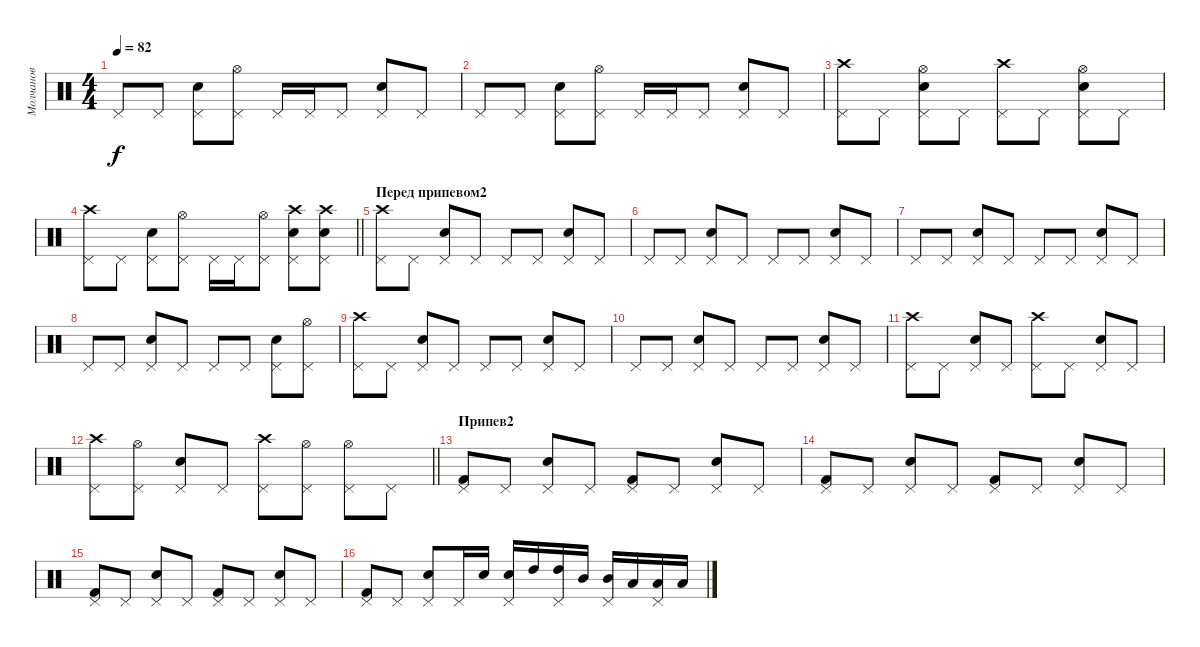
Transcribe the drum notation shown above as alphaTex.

\track ("Молчанов" "Молчанов") {instrument percussion}
\staff {score}
\articulation defaults
\ts (4 4)
\tempo 82
\clef neutral
\ks c "Pedal Hi-Hat (hit)".8{dy f} "Pedal Hi-Hat (hit)".8
("Pedal Hi-Hat (hit)" "Electric Snare (hit)").8 ("Pedal Hi-Hat (hit)" "Hi-Hat (open)").8 "Pedal Hi-Hat (hit)".16 "Pedal Hi-Hat (hit)".16 "Pedal Hi-Hat (hit)".8 ("Pedal Hi-Hat (hit)" "Electric Snare (hit)").8 "Pedal Hi-Hat (hit)".8 |
"Pedal Hi-Hat (hit)".8 "Pedal Hi-Hat (hit)".8 ("Pedal Hi-Hat (hit)" "Electric Snare (hit)").8 ("Pedal Hi-Hat (hit)" "Hi-Hat (open)").8 "Pedal Hi-Hat (hit)".16 "Pedal Hi-Hat (hit)".16 "Pedal Hi-Hat (hit)".8 ("Pedal Hi-Hat (hit)" "Electric Snare (hit)").8 "Pedal Hi-Hat (hit)".8 |
("Pedal Hi-Hat (hit)" "Crash high (hit)").8 "Pedal Hi-Hat (hit)".8 ("Pedal Hi-Hat (hit)" "Hi-Hat (open)" "Electric Snare (hit)").8 "Pedal Hi-Hat (hit)".8 ("Pedal Hi-Hat (hit)" "Crash high (hit)").8 "Pedal Hi-Hat (hit)".8 ("Pedal Hi-Hat (hit)" "Hi-Hat (open)" "Electric Snare (hit)").8 "Pedal Hi-Hat (hit)".8 |
\barLineRight lightlight
("Pedal Hi-Hat (hit)" "Crash high (hit)").8 "Pedal Hi-Hat (hit)".8 ("Pedal Hi-Hat (hit)" "Electric Snare (hit)").8 ("Pedal Hi-Hat (hit)" "Hi-Hat (open)").8 "Pedal Hi-Hat (hit)".16 "Pedal Hi-Hat (hit)".16 ("Pedal Hi-Hat (hit)" "Hi-Hat (open)").8 ("Pedal Hi-Hat (hit)" "Crash high (hit)" "Electric Snare (hit)").8 ("Pedal Hi-Hat (hit)" "Crash high (hit)" "Electric Snare (hit)").8 |
\section ("" "Перед припевом2")
("Pedal Hi-Hat (hit)" "Crash high (hit)").8 "Pedal Hi-Hat (hit)".8 ("Pedal Hi-Hat (hit)" "Electric Snare (hit)").8 "Pedal Hi-Hat (hit)".8 "Pedal Hi-Hat (hit)".8 "Pedal Hi-Hat (hit)".8 ("Pedal Hi-Hat (hit)" "Electric Snare (hit)").8 "Pedal Hi-Hat (hit)".8 |
"Pedal Hi-Hat (hit)".8 "Pedal Hi-Hat (hit)".8 ("Pedal Hi-Hat (hit)" "Electric Snare (hit)").8 "Pedal Hi-Hat (hit)".8 "Pedal Hi-Hat (hit)".8 "Pedal Hi-Hat (hit)".8 ("Pedal Hi-Hat (hit)" "Electric Snare (hit)").8 "Pedal Hi-Hat (hit)".8 |
"Pedal Hi-Hat (hit)".8 "Pedal Hi-Hat (hit)".8 ("Pedal Hi-Hat (hit)" "Electric Snare (hit)").8 "Pedal Hi-Hat (hit)".8 "Pedal Hi-Hat (hit)".8 "Pedal Hi-Hat (hit)".8 ("Pedal Hi-Hat (hit)" "Electric Snare (hit)").8 "Pedal Hi-Hat (hit)".8 |
"Pedal Hi-Hat (hit)".8 "Pedal Hi-Hat (hit)".8 ("Pedal Hi-Hat (hit)" "Electric Snare (hit)").8 "Pedal Hi-Hat (hit)".8 "Pedal Hi-Hat (hit)".8 "Pedal Hi-Hat (hit)".8 ("Pedal Hi-Hat (hit)" "Electric Snare (hit)").8 ("Pedal Hi-Hat (hit)" "Hi-Hat (open)").8 |
("Pedal Hi-Hat (hit)" "Crash high (hit)").8 "Pedal Hi-Hat (hit)".8 ("Pedal Hi-Hat (hit)" "Electric Snare (hit)").8 "Pedal Hi-Hat (hit)".8 "Pedal Hi-Hat (hit)".8 "Pedal Hi-Hat (hit)".8 ("Pedal Hi-Hat (hit)" "Electric Snare (hit)").8 "Pedal Hi-Hat (hit)".8 |
"Pedal Hi-Hat (hit)".8 "Pedal Hi-Hat (hit)".8 ("Pedal Hi-Hat (hit)" "Electric Snare (hit)").8 "Pedal Hi-Hat (hit)".8 "Pedal Hi-Hat (hit)".8 "Pedal Hi-Hat (hit)".8 ("Pedal Hi-Hat (hit)" "Electric Snare (hit)").8 "Pedal Hi-Hat (hit)".8 |
("Pedal Hi-Hat (hit)" "Crash high (hit)").8 "Pedal Hi-Hat (hit)".8 ("Pedal Hi-Hat (hit)" "Electric Snare (hit)").8 "Pedal Hi-Hat (hit)".8 ("Pedal Hi-Hat (hit)" "Crash high (hit)").8 "Pedal Hi-Hat (hit)".8 ("Pedal Hi-Hat (hit)" "Electric Snare (hit)").8 "Pedal Hi-Hat (hit)".8 |
\barLineRight lightlight
("Pedal Hi-Hat (hit)" "Crash high (hit)").8 ("Pedal Hi-Hat (hit)" "Hi-Hat (open)").8 ("Pedal Hi-Hat (hit)" "Electric Snare (hit)").8 "Pedal Hi-Hat (hit)".8 ("Pedal Hi-Hat (hit)" "Crash high (hit)").8 ("Pedal Hi-Hat (hit)" "Hi-Hat (open)").8 ("Pedal Hi-Hat (hit)" "Hi-Hat (open)").8 "Pedal Hi-Hat (hit)".8 |
\section ("" "Припев2")
("Pedal Hi-Hat (hit)" "Kick (hit) 2").8 "Pedal Hi-Hat (hit)".8 ("Pedal Hi-Hat (hit)" "Electric Snare (hit)").8 "Pedal Hi-Hat (hit)".8 ("Pedal Hi-Hat (hit)" "Kick (hit) 2").8 "Pedal Hi-Hat (hit)".8 ("Pedal Hi-Hat (hit)" "Electric Snare (hit)").8 "Pedal Hi-Hat (hit)".8 |
("Pedal Hi-Hat (hit)" "Kick (hit) 2").8 "Pedal Hi-Hat (hit)".8 ("Pedal Hi-Hat (hit)" "Electric Snare (hit)").8 "Pedal Hi-Hat (hit)".8 ("Pedal Hi-Hat (hit)" "Kick (hit) 2").8 "Pedal Hi-Hat (hit)".8 ("Pedal Hi-Hat (hit)" "Electric Snare (hit)").8 "Pedal Hi-Hat (hit)".8 |
("Pedal Hi-Hat (hit)" "Kick (hit) 2").8 "Pedal Hi-Hat (hit)".8 ("Pedal Hi-Hat (hit)" "Electric Snare (hit)").8 "Pedal Hi-Hat (hit)".8 ("Pedal Hi-Hat (hit)" "Kick (hit) 2").8 "Pedal Hi-Hat (hit)".8 ("Pedal Hi-Hat (hit)" "Electric Snare (hit)").8 "Pedal Hi-Hat (hit)".8 |
("Pedal Hi-Hat (hit)" "Kick (hit) 2").8 "Pedal Hi-Hat (hit)".8 ("Pedal Hi-Hat (hit)" "Electric Snare (hit)").8 "Pedal Hi-Hat (hit)".16 "Electric Snare (hit)".16 ("Pedal Hi-Hat (hit)" "Electric Snare (hit)").16 "High Tom (hit)".16 ("Pedal Hi-Hat (hit)" "High Tom (hit)").16 "Mid Tom (hit)".16 ("Pedal Hi-Hat (hit)" "Mid Tom (hit)").16 "Low Tom (hit)".16 ("Pedal Hi-Hat (hit)" "Low Tom (hit)").16 "Low Tom (hit)".16
